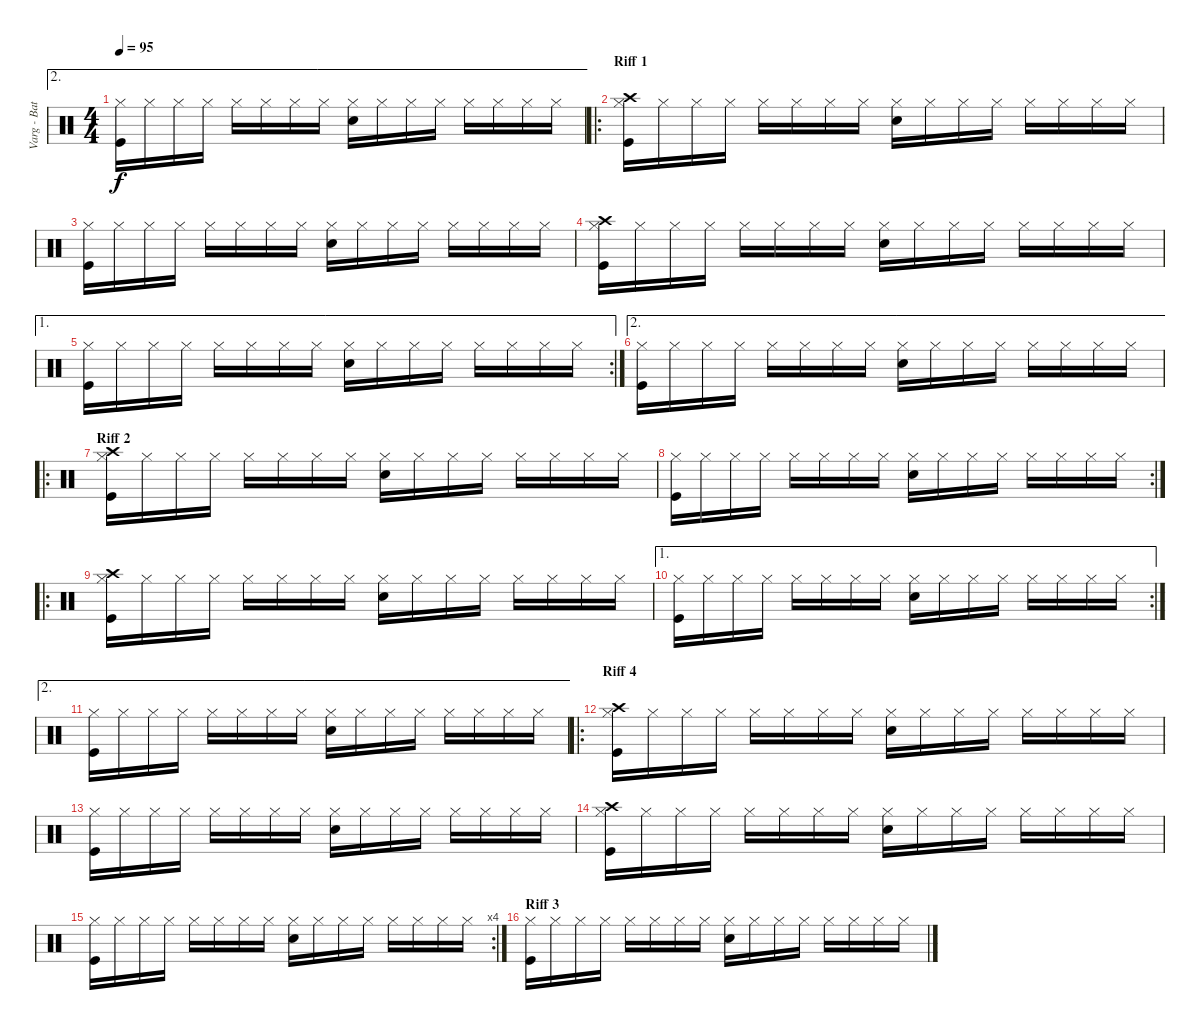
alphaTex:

\track ("Varg - Batterie" "Varg - Bat") {instrument percussion}
\staff {score}
\articulation defaults
\ae 2
\ts (4 4)
\tempo 95
\clef neutral
\ks c
("Hi-Hat (closed)" "Kick (hit)").16{dy f} "Hi-Hat (closed)".16 "Hi-Hat (closed)".16 "Hi-Hat (closed)".16 "Hi-Hat (closed)".16 "Hi-Hat (closed)".16 "Hi-Hat (closed)".16 "Hi-Hat (closed)".16 ("Hi-Hat (closed)" "Electric Snare (hit)").16 "Hi-Hat (closed)".16 "Hi-Hat (closed)".16 "Hi-Hat (closed)".16 "Hi-Hat (closed)".16 "Hi-Hat (closed)".16 "Hi-Hat (closed)".16 "Hi-Hat (closed)".16 |
\ro
\section ("" "Riff 1")
("Hi-Hat (closed)" "Crash high (hit)" "Kick (hit)").16 "Hi-Hat (closed)".16 "Hi-Hat (closed)".16 "Hi-Hat (closed)".16 "Hi-Hat (closed)".16 "Hi-Hat (closed)".16 "Hi-Hat (closed)".16 "Hi-Hat (closed)".16 ("Hi-Hat (closed)" "Electric Snare (hit)").16 "Hi-Hat (closed)".16 "Hi-Hat (closed)".16 "Hi-Hat (closed)".16 "Hi-Hat (closed)".16 "Hi-Hat (closed)".16 "Hi-Hat (closed)".16 "Hi-Hat (closed)".16 |
("Hi-Hat (closed)" "Kick (hit)").16 "Hi-Hat (closed)".16 "Hi-Hat (closed)".16 "Hi-Hat (closed)".16 "Hi-Hat (closed)".16 "Hi-Hat (closed)".16 "Hi-Hat (closed)".16 "Hi-Hat (closed)".16 ("Hi-Hat (closed)" "Electric Snare (hit)").16 "Hi-Hat (closed)".16 "Hi-Hat (closed)".16 "Hi-Hat (closed)".16 "Hi-Hat (closed)".16 "Hi-Hat (closed)".16 "Hi-Hat (closed)".16 "Hi-Hat (closed)".16 |
("Hi-Hat (closed)" "Crash high (hit)" "Kick (hit)").16 "Hi-Hat (closed)".16 "Hi-Hat (closed)".16 "Hi-Hat (closed)".16 "Hi-Hat (closed)".16 "Hi-Hat (closed)".16 "Hi-Hat (closed)".16 "Hi-Hat (closed)".16 ("Hi-Hat (closed)" "Electric Snare (hit)").16 "Hi-Hat (closed)".16 "Hi-Hat (closed)".16 "Hi-Hat (closed)".16 "Hi-Hat (closed)".16 "Hi-Hat (closed)".16 "Hi-Hat (closed)".16 "Hi-Hat (closed)".16 |
\ae 1
\rc 2
("Hi-Hat (closed)" "Kick (hit)").16 "Hi-Hat (closed)".16 "Hi-Hat (closed)".16 "Hi-Hat (closed)".16 "Hi-Hat (closed)".16 "Hi-Hat (closed)".16 "Hi-Hat (closed)".16 "Hi-Hat (closed)".16 ("Hi-Hat (closed)" "Electric Snare (hit)").16 "Hi-Hat (closed)".16 "Hi-Hat (closed)".16 "Hi-Hat (closed)".16 "Hi-Hat (closed)".16 "Hi-Hat (closed)".16 "Hi-Hat (closed)".16 "Hi-Hat (closed)".16 |
\ae 2
("Hi-Hat (closed)" "Kick (hit)").16 "Hi-Hat (closed)".16 "Hi-Hat (closed)".16 "Hi-Hat (closed)".16 "Hi-Hat (closed)".16 "Hi-Hat (closed)".16 "Hi-Hat (closed)".16 "Hi-Hat (closed)".16 ("Hi-Hat (closed)" "Electric Snare (hit)").16 "Hi-Hat (closed)".16 "Hi-Hat (closed)".16 "Hi-Hat (closed)".16 "Hi-Hat (closed)".16 "Hi-Hat (closed)".16 "Hi-Hat (closed)".16 "Hi-Hat (closed)".16 |
\ro
\section ("" "Riff 2")
("Hi-Hat (closed)" "Crash high (hit)" "Kick (hit)").16 "Hi-Hat (closed)".16 "Hi-Hat (closed)".16 "Hi-Hat (closed)".16 "Hi-Hat (closed)".16 "Hi-Hat (closed)".16 "Hi-Hat (closed)".16 "Hi-Hat (closed)".16 ("Hi-Hat (closed)" "Electric Snare (hit)").16 "Hi-Hat (closed)".16 "Hi-Hat (closed)".16 "Hi-Hat (closed)".16 "Hi-Hat (closed)".16 "Hi-Hat (closed)".16 "Hi-Hat (closed)".16 "Hi-Hat (closed)".16 |
\rc 2
("Hi-Hat (closed)" "Kick (hit)").16 "Hi-Hat (closed)".16 "Hi-Hat (closed)".16 "Hi-Hat (closed)".16 "Hi-Hat (closed)".16 "Hi-Hat (closed)".16 "Hi-Hat (closed)".16 "Hi-Hat (closed)".16 ("Hi-Hat (closed)" "Electric Snare (hit)").16 "Hi-Hat (closed)".16 "Hi-Hat (closed)".16 "Hi-Hat (closed)".16 "Hi-Hat (closed)".16 "Hi-Hat (closed)".16 "Hi-Hat (closed)".16 "Hi-Hat (closed)".16 |
\ro
("Hi-Hat (closed)" "Crash high (hit)" "Kick (hit)").16 "Hi-Hat (closed)".16 "Hi-Hat (closed)".16 "Hi-Hat (closed)".16 "Hi-Hat (closed)".16 "Hi-Hat (closed)".16 "Hi-Hat (closed)".16 "Hi-Hat (closed)".16 ("Hi-Hat (closed)" "Electric Snare (hit)").16 "Hi-Hat (closed)".16 "Hi-Hat (closed)".16 "Hi-Hat (closed)".16 "Hi-Hat (closed)".16 "Hi-Hat (closed)".16 "Hi-Hat (closed)".16 "Hi-Hat (closed)".16 |
\ae 1
\rc 2
("Hi-Hat (closed)" "Kick (hit)").16 "Hi-Hat (closed)".16 "Hi-Hat (closed)".16 "Hi-Hat (closed)".16 "Hi-Hat (closed)".16 "Hi-Hat (closed)".16 "Hi-Hat (closed)".16 "Hi-Hat (closed)".16 ("Hi-Hat (closed)" "Electric Snare (hit)").16 "Hi-Hat (closed)".16 "Hi-Hat (closed)".16 "Hi-Hat (closed)".16 "Hi-Hat (closed)".16 "Hi-Hat (closed)".16 "Hi-Hat (closed)".16 "Hi-Hat (closed)".16 |
\ae 2
("Hi-Hat (closed)" "Kick (hit)").16 "Hi-Hat (closed)".16 "Hi-Hat (closed)".16 "Hi-Hat (closed)".16 "Hi-Hat (closed)".16 "Hi-Hat (closed)".16 "Hi-Hat (closed)".16 "Hi-Hat (closed)".16 ("Hi-Hat (closed)" "Electric Snare (hit)").16 "Hi-Hat (closed)".16 "Hi-Hat (closed)".16 "Hi-Hat (closed)".16 "Hi-Hat (closed)".16 "Hi-Hat (closed)".16 "Hi-Hat (closed)".16 "Hi-Hat (closed)".16 |
\ro
\section ("" "Riff 4")
("Hi-Hat (closed)" "Crash high (hit)" "Kick (hit)").16 "Hi-Hat (closed)".16 "Hi-Hat (closed)".16 "Hi-Hat (closed)".16 "Hi-Hat (closed)".16 "Hi-Hat (closed)".16 "Hi-Hat (closed)".16 "Hi-Hat (closed)".16 ("Hi-Hat (closed)" "Electric Snare (hit)").16 "Hi-Hat (closed)".16 "Hi-Hat (closed)".16 "Hi-Hat (closed)".16 "Hi-Hat (closed)".16 "Hi-Hat (closed)".16 "Hi-Hat (closed)".16 "Hi-Hat (closed)".16 |
("Hi-Hat (closed)" "Kick (hit)").16 "Hi-Hat (closed)".16 "Hi-Hat (closed)".16 "Hi-Hat (closed)".16 "Hi-Hat (closed)".16 "Hi-Hat (closed)".16 "Hi-Hat (closed)".16 "Hi-Hat (closed)".16 ("Hi-Hat (closed)" "Electric Snare (hit)").16 "Hi-Hat (closed)".16 "Hi-Hat (closed)".16 "Hi-Hat (closed)".16 "Hi-Hat (closed)".16 "Hi-Hat (closed)".16 "Hi-Hat (closed)".16 "Hi-Hat (closed)".16 |
("Hi-Hat (closed)" "Crash high (hit)" "Kick (hit)").16 "Hi-Hat (closed)".16 "Hi-Hat (closed)".16 "Hi-Hat (closed)".16 "Hi-Hat (closed)".16 "Hi-Hat (closed)".16 "Hi-Hat (closed)".16 "Hi-Hat (closed)".16 ("Hi-Hat (closed)" "Electric Snare (hit)").16 "Hi-Hat (closed)".16 "Hi-Hat (closed)".16 "Hi-Hat (closed)".16 "Hi-Hat (closed)".16 "Hi-Hat (closed)".16 "Hi-Hat (closed)".16 "Hi-Hat (closed)".16 |
\rc 4
("Hi-Hat (closed)" "Kick (hit)").16 "Hi-Hat (closed)".16 "Hi-Hat (closed)".16 "Hi-Hat (closed)".16 "Hi-Hat (closed)".16 "Hi-Hat (closed)".16 "Hi-Hat (closed)".16 "Hi-Hat (closed)".16 ("Hi-Hat (closed)" "Electric Snare (hit)").16 "Hi-Hat (closed)".16 "Hi-Hat (closed)".16 "Hi-Hat (closed)".16 "Hi-Hat (closed)".16 "Hi-Hat (closed)".16 "Hi-Hat (closed)".16 "Hi-Hat (closed)".16 |
\section ("" "Riff 3")
("Hi-Hat (closed)" "Kick (hit)").16 "Hi-Hat (closed)".16 "Hi-Hat (closed)".16 "Hi-Hat (closed)".16 "Hi-Hat (closed)".16 "Hi-Hat (closed)".16 "Hi-Hat (closed)".16 "Hi-Hat (closed)".16 ("Hi-Hat (closed)" "Electric Snare (hit)").16 "Hi-Hat (closed)".16 "Hi-Hat (closed)".16 "Hi-Hat (closed)".16 "Hi-Hat (closed)".16 "Hi-Hat (closed)".16 "Hi-Hat (closed)".16 "Hi-Hat (closed)".16
